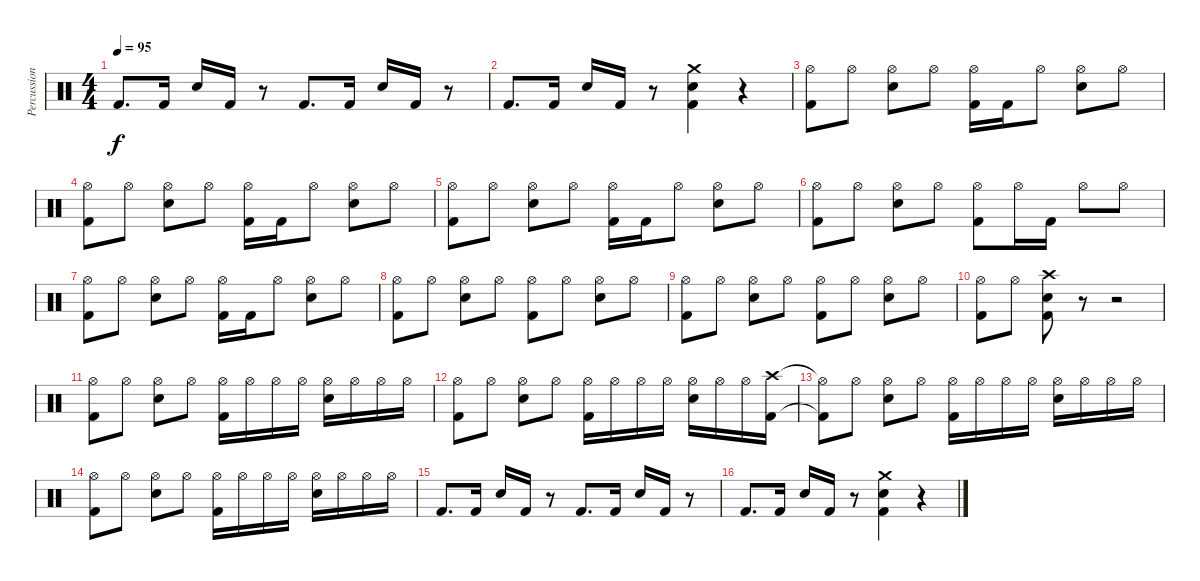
\track ("Percussion" "Percussion") {instrument percussion}
\staff {score}
\articulation defaults
\ts (4 4)
\tempo 95
\clef neutral
\ks c "Kick (hit) 2".8{d dy f} "Kick (hit) 2".16 "Snare (hit) 2".16 "Kick (hit) 2".16
r.8 "Kick (hit) 2".8{d} "Kick (hit) 2".16 "Snare (hit) 2".16 "Kick (hit) 2".16 r.8 |
"Kick (hit) 2".8{d} "Kick (hit) 2".16 "Snare (hit) 2".16 "Kick (hit) 2".16 r.8 ("Crash medium (hit)" "Snare (hit) 2" "Kick (hit) 2").4 r.4 |
("Hi-Hat (open)" "Kick (hit) 2").8 "Hi-Hat (open)".8 ("Hi-Hat (open)" "Snare (hit) 2").8 "Hi-Hat (open)".8 ("Hi-Hat (open)" "Kick (hit) 2").16 "Kick (hit) 2".16 "Hi-Hat (open)".8 ("Hi-Hat (open)" "Snare (hit) 2").8 "Hi-Hat (open)".8 |
("Hi-Hat (open)" "Kick (hit) 2").8 "Hi-Hat (open)".8 ("Hi-Hat (open)" "Snare (hit) 2").8 "Hi-Hat (open)".8 ("Hi-Hat (open)" "Kick (hit) 2").16 "Kick (hit) 2".16 "Hi-Hat (open)".8 ("Hi-Hat (open)" "Snare (hit) 2").8 "Hi-Hat (open)".8 |
("Hi-Hat (open)" "Kick (hit) 2").8 "Hi-Hat (open)".8 ("Hi-Hat (open)" "Snare (hit) 2").8 "Hi-Hat (open)".8 ("Hi-Hat (open)" "Kick (hit) 2").16 "Kick (hit) 2".16 "Hi-Hat (open)".8 ("Hi-Hat (open)" "Snare (hit) 2").8 "Hi-Hat (open)".8 |
("Hi-Hat (open)" "Kick (hit) 2").8 "Hi-Hat (open)".8 ("Hi-Hat (open)" "Snare (hit) 2").8 "Hi-Hat (open)".8 ("Hi-Hat (open)" "Kick (hit) 2").8 "Hi-Hat (open)".16 "Kick (hit) 2".16 "Hi-Hat (open)".8 "Hi-Hat (open)".8 |
("Hi-Hat (open)" "Kick (hit) 2").8 "Hi-Hat (open)".8 ("Hi-Hat (open)" "Snare (hit) 2").8 "Hi-Hat (open)".8 ("Hi-Hat (open)" "Kick (hit) 2").16 "Kick (hit) 2".16 "Hi-Hat (open)".8 ("Hi-Hat (open)" "Snare (hit) 2").8 "Hi-Hat (open)".8 |
("Hi-Hat (open)" "Kick (hit) 2").8 "Hi-Hat (open)".8 ("Hi-Hat (open)" "Snare (hit) 2").8 "Hi-Hat (open)".8 ("Hi-Hat (open)" "Kick (hit) 2").8 "Hi-Hat (open)".8 ("Hi-Hat (open)" "Snare (hit) 2").8 "Hi-Hat (open)".8 |
("Hi-Hat (open)" "Kick (hit) 2").8 "Hi-Hat (open)".8 ("Hi-Hat (open)" "Snare (hit) 2").8 "Hi-Hat (open)".8 ("Hi-Hat (open)" "Kick (hit) 2").8 "Hi-Hat (open)".8 ("Hi-Hat (open)" "Snare (hit) 2").8 "Hi-Hat (open)".8 |
("Hi-Hat (open)" "Kick (hit) 2").8 "Hi-Hat (open)".8 ("Crash high (hit)" "Snare (hit) 2" "Kick (hit) 2").8 r.8 r.2 |
("Hi-Hat (open)" "Kick (hit) 2").8 "Hi-Hat (open)".8 ("Hi-Hat (open)" "Snare (hit) 2").8 "Hi-Hat (open)".8 ("Hi-Hat (open)" "Kick (hit) 2").16 "Hi-Hat (open)".16 "Hi-Hat (open)".16 "Hi-Hat (open)".16 ("Hi-Hat (open)" "Snare (hit) 2").16 "Hi-Hat (open)".16 "Hi-Hat (open)".16 "Hi-Hat (open)".16 |
("Hi-Hat (open)" "Kick (hit) 2").8 "Hi-Hat (open)".8 ("Hi-Hat (open)" "Snare (hit) 2").8 "Hi-Hat (open)".8 ("Hi-Hat (open)" "Kick (hit) 2").16 "Hi-Hat (open)".16 "Hi-Hat (open)".16 "Hi-Hat (open)".16 ("Hi-Hat (open)" "Snare (hit) 2").16 "Hi-Hat (open)".16 "Hi-Hat (open)".16 ("Crash high (hit)" "Kick (hit) 2").16 |
("Hi-Hat (open)"{t} "Kick (hit) 2"{t}).8 "Hi-Hat (open)".8 ("Hi-Hat (open)" "Snare (hit) 2").8 "Hi-Hat (open)".8 ("Hi-Hat (open)" "Kick (hit) 2").16 "Hi-Hat (open)".16 "Hi-Hat (open)".16 "Hi-Hat (open)".16 ("Hi-Hat (open)" "Snare (hit) 2").16 "Hi-Hat (open)".16 "Hi-Hat (open)".16 "Hi-Hat (open)".16 |
("Hi-Hat (open)" "Kick (hit) 2").8 "Hi-Hat (open)".8 ("Hi-Hat (open)" "Snare (hit) 2").8 "Hi-Hat (open)".8 ("Hi-Hat (open)" "Kick (hit) 2").16 "Hi-Hat (open)".16 "Hi-Hat (open)".16 "Hi-Hat (open)".16 ("Hi-Hat (open)" "Snare (hit) 2").16 "Hi-Hat (open)".16 "Hi-Hat (open)".16 "Hi-Hat (open)".16 |
"Kick (hit) 2".8{d} "Kick (hit) 2".16 "Snare (hit) 2".16 "Kick (hit) 2".16 r.8 "Kick (hit) 2".8{d} "Kick (hit) 2".16 "Snare (hit) 2".16 "Kick (hit) 2".16 r.8 |
"Kick (hit) 2".8{d} "Kick (hit) 2".16 "Snare (hit) 2".16 "Kick (hit) 2".16 r.8 ("Crash medium (hit)" "Snare (hit) 2" "Kick (hit) 2").4 r.4
